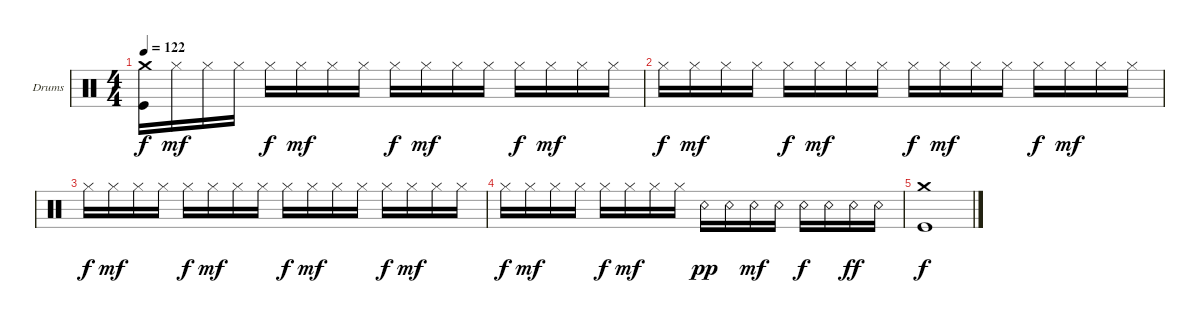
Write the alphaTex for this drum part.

\defaultSystemsLayout 4
\bracketExtendMode groupsimilarinstruments
\firstSystemTrackNameOrientation horizontal
\otherSystemsTrackNameOrientation horizontal
\track ("Drumkit" "Drums") {instrument percussion}
\staff {score}
\articulation defaults
\ts (4 4)
\tempo 122
\clef neutral
\ks c
("Kick (hit)" "Crash medium (hit)").16{dy f} "Hi-Hat (closed)".16{dy mf} "Hi-Hat (closed)".16 "Hi-Hat (closed)".16 "Hi-Hat (closed)".16{dy f} "Hi-Hat (closed)".16{dy mf} "Hi-Hat (closed)".16 "Hi-Hat (closed)".16 "Hi-Hat (closed)".16{dy f} "Hi-Hat (closed)".16{dy mf} "Hi-Hat (closed)".16 "Hi-Hat (closed)".16 "Hi-Hat (closed)".16{dy f} "Hi-Hat (closed)".16{dy mf} "Hi-Hat (closed)".16 "Hi-Hat (closed)".16 |
"Hi-Hat (closed)".16{dy f} "Hi-Hat (closed)".16{dy mf} "Hi-Hat (closed)".16 "Hi-Hat (closed)".16 "Hi-Hat (closed)".16{dy f} "Hi-Hat (closed)".16{dy mf} "Hi-Hat (closed)".16 "Hi-Hat (closed)".16 "Hi-Hat (closed)".16{dy f} "Hi-Hat (closed)".16{dy mf} "Hi-Hat (closed)".16 "Hi-Hat (closed)".16 "Hi-Hat (closed)".16{dy f} "Hi-Hat (closed)".16{dy mf} "Hi-Hat (closed)".16 "Hi-Hat (closed)".16 |
"Hi-Hat (closed)".16{dy f} "Hi-Hat (closed)".16{dy mf} "Hi-Hat (closed)".16 "Hi-Hat (closed)".16 "Hi-Hat (closed)".16{dy f} "Hi-Hat (closed)".16{dy mf} "Hi-Hat (closed)".16 "Hi-Hat (closed)".16 "Hi-Hat (closed)".16{dy f} "Hi-Hat (closed)".16{dy mf} "Hi-Hat (closed)".16 "Hi-Hat (closed)".16 "Hi-Hat (closed)".16{dy f} "Hi-Hat (closed)".16{dy mf} "Hi-Hat (closed)".16 "Hi-Hat (closed)".16 |
"Hi-Hat (closed)".16{dy f} "Hi-Hat (closed)".16{dy mf} "Hi-Hat (closed)".16 "Hi-Hat (closed)".16 "Hi-Hat (closed)".16{dy f} "Hi-Hat (closed)".16{dy mf} "Hi-Hat (closed)".16 "Hi-Hat (closed)".16 "Snare (rim shot)".16{dy pp} "Snare (rim shot)".16 "Snare (rim shot)".16{dy mf} "Snare (rim shot)".16 "Snare (rim shot)".16{dy f} "Snare (rim shot)".16 "Snare (rim shot)".16{dy ff} "Snare (rim shot)".16 |
("Crash medium (hit)" "Kick (hit)").1{dy f}
